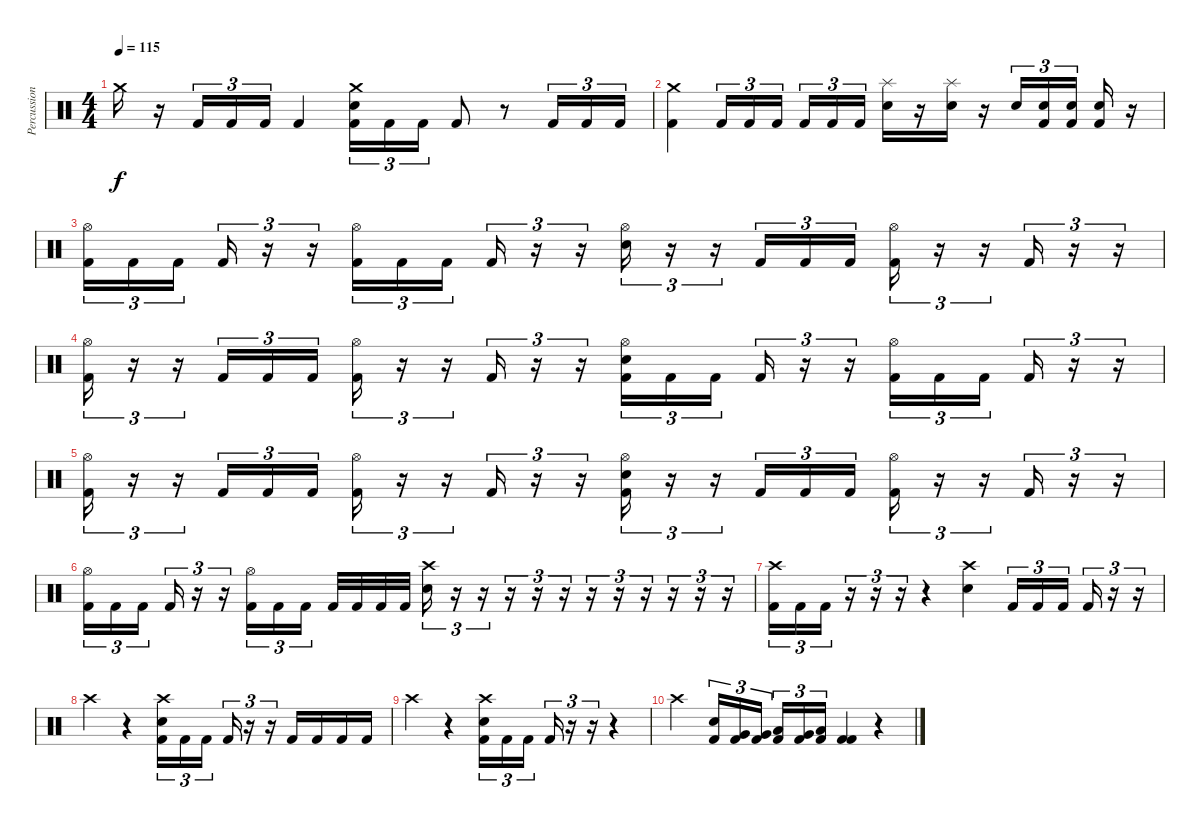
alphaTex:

\track ("Percussion" "Percussion") {instrument percussion}
\staff {score}
\articulation defaults
\ts (4 4)
\tempo 115
\clef neutral
\ks c "Crash medium (hit)".16{dy f}
r.16 "Kick (hit) 2".16{tu (3 2)} "Kick (hit) 2".16{tu (3 2)} "Kick (hit) 2".16{tu (3 2)} "Kick (hit) 2".4 ("Crash medium (hit)" "Electric Snare (hit)" "Kick (hit) 2").16{tu (3 2)} "Kick (hit) 2".16{tu (3 2)} "Kick (hit) 2".16{tu (3 2)} "Kick (hit) 2".8 r.8 "Kick (hit) 2".16{tu (3 2)} "Kick (hit) 2".16{tu (3 2)} "Kick (hit) 2".16{tu (3 2)} |
("Crash medium (hit)" "Kick (hit) 2").4 "Kick (hit) 2".16{tu (3 2)} "Kick (hit) 2".16{tu (3 2)} "Kick (hit) 2".16{tu (3 2)} "Kick (hit) 2".16{tu (3 2)} "Kick (hit) 2".16{tu (3 2)} "Kick (hit) 2".16{tu (3 2)} ("Splash (hit)" "Electric Snare (hit)").16 r.16 ("Splash (hit)" "Electric Snare (hit)").16 r.16 "Electric Snare (hit)".16{tu (3 2)} ("Electric Snare (hit)" "Kick (hit) 2").16{tu (3 2)} ("Electric Snare (hit)" "Kick (hit) 2").16{tu (3 2)} ("Electric Snare (hit)" "Kick (hit) 2").16 r.16 |
("Hi-Hat (open)" "Kick (hit) 2").16{tu (3 2)} "Kick (hit) 2".16{tu (3 2)} "Kick (hit) 2".16{tu (3 2)} "Kick (hit) 2".16{tu (3 2)} r.16{tu (3 2)} r.16{tu (3 2)} ("Hi-Hat (open)" "Kick (hit) 2").16{tu (3 2)} "Kick (hit) 2".16{tu (3 2)} "Kick (hit) 2".16{tu (3 2)} "Kick (hit) 2".16{tu (3 2)} r.16{tu (3 2)} r.16{tu (3 2)} ("Hi-Hat (open)" "Electric Snare (hit)").16{tu (3 2)} r.16{tu (3 2)} r.16{tu (3 2)} "Kick (hit) 2".16{tu (3 2)} "Kick (hit) 2".16{tu (3 2)} "Kick (hit) 2".16{tu (3 2)} ("Hi-Hat (open)" "Kick (hit) 2").16{tu (3 2)} r.16{tu (3 2)} r.16{tu (3 2)} "Kick (hit) 2".16{tu (3 2)} r.16{tu (3 2)} r.16{tu (3 2)} |
("Hi-Hat (open)" "Kick (hit) 2").16{tu (3 2)} r.16{tu (3 2)} r.16{tu (3 2)} "Kick (hit) 2".16{tu (3 2)} "Kick (hit) 2".16{tu (3 2)} "Kick (hit) 2".16{tu (3 2)} ("Hi-Hat (open)" "Kick (hit) 2").16{tu (3 2)} r.16{tu (3 2)} r.16{tu (3 2)} "Kick (hit) 2".16{tu (3 2)} r.16{tu (3 2)} r.16{tu (3 2)} ("Hi-Hat (open)" "Electric Snare (hit)" "Kick (hit) 2").16{tu (3 2)} "Kick (hit) 2".16{tu (3 2)} "Kick (hit) 2".16{tu (3 2)} "Kick (hit) 2".16{tu (3 2)} r.16{tu (3 2)} r.16{tu (3 2)} ("Hi-Hat (open)" "Kick (hit) 2").16{tu (3 2)} "Kick (hit) 2".16{tu (3 2)} "Kick (hit) 2".16{tu (3 2)} "Kick (hit) 2".16{tu (3 2)} r.16{tu (3 2)} r.16{tu (3 2)} |
("Hi-Hat (open)" "Kick (hit) 2").16{tu (3 2)} r.16{tu (3 2)} r.16{tu (3 2)} "Kick (hit) 2".16{tu (3 2)} "Kick (hit) 2".16{tu (3 2)} "Kick (hit) 2".16{tu (3 2)} ("Hi-Hat (open)" "Kick (hit) 2").16{tu (3 2)} r.16{tu (3 2)} r.16{tu (3 2)} "Kick (hit) 2".16{tu (3 2)} r.16{tu (3 2)} r.16{tu (3 2)} ("Hi-Hat (open)" "Electric Snare (hit)" "Kick (hit) 2").16{tu (3 2)} r.16{tu (3 2)} r.16{tu (3 2)} "Kick (hit) 2".16{tu (3 2)} "Kick (hit) 2".16{tu (3 2)} "Kick (hit) 2".16{tu (3 2)} ("Hi-Hat (open)" "Kick (hit) 2").16{tu (3 2)} r.16{tu (3 2)} r.16{tu (3 2)} "Kick (hit) 2".16{tu (3 2)} r.16{tu (3 2)} r.16{tu (3 2)} |
("Hi-Hat (open)" "Kick (hit) 2").16{tu (3 2)} "Kick (hit) 2".16{tu (3 2)} "Kick (hit) 2".16{tu (3 2)} "Kick (hit) 2".16{tu (3 2)} r.16{tu (3 2)} r.16{tu (3 2)} ("Hi-Hat (open)" "Kick (hit) 2").16{tu (3 2)} "Kick (hit) 2".16{tu (3 2)} "Kick (hit) 2".16{tu (3 2)} "Kick (hit) 2".32 "Kick (hit) 2".32 "Kick (hit) 2".32 "Kick (hit) 2".32 ("Crash high (hit)" "Electric Snare (hit)").16{tu (3 2)} r.16{tu (3 2)} r.16{tu (3 2)} r.16{tu (3 2)} r.16{tu (3 2)} r.16{tu (3 2)} r.16{tu (3 2)} r.16{tu (3 2)} r.16{tu (3 2)} r.16{tu (3 2)} r.16{tu (3 2)} r.16{tu (3 2)} |
("Crash high (hit)" "Kick (hit) 2").16{tu (3 2)} "Kick (hit) 2".16{tu (3 2)} "Kick (hit) 2".16{tu (3 2)} r.16{tu (3 2)} r.16{tu (3 2)} r.16{tu (3 2)} r.4 ("Crash high (hit)" "Electric Snare (hit)").4 "Kick (hit) 2".16{tu (3 2)} "Kick (hit) 2".16{tu (3 2)} "Kick (hit) 2".16{tu (3 2)} "Kick (hit) 2".16{tu (3 2)} r.16{tu (3 2)} r.16{tu (3 2)} |
"Crash high (hit)".4 r.4 ("Crash high (hit)" "Electric Snare (hit)" "Kick (hit) 2").16{tu (3 2)} "Kick (hit) 2".16{tu (3 2)} "Kick (hit) 2".16{tu (3 2)} "Kick (hit) 2".16{tu (3 2)} r.16{tu (3 2)} r.16{tu (3 2)} "Kick (hit) 2".16 "Kick (hit) 2".16 "Kick (hit) 2".16 "Kick (hit) 2".16 |
"Crash high (hit)".4 r.4 ("Crash high (hit)" "Electric Snare (hit)" "Kick (hit) 2").16{tu (3 2)} "Kick (hit) 2".16{tu (3 2)} "Kick (hit) 2".16{tu (3 2)} "Kick (hit) 2".16{tu (3 2)} r.16{tu (3 2)} r.16{tu (3 2)} r.4 |
"Crash high (hit)".4 ("Electric Snare (hit)" "Kick (hit) 2").16{tu (3 2)} ("Very Low Tom (hit)" "Kick (hit) 2").16{tu (3 2)} ("Very Low Tom (hit)" "Kick (hit) 2").16{tu (3 2)} ("Low Tom (hit)" "Kick (hit) 2").16{tu (3 2)} ("Very Low Tom (hit)" "Kick (hit) 2").16{tu (3 2)} ("Low Floor Tom (hit)" "Kick (hit) 2").16{tu (3 2)} ("Kick (hit) 2" "Kick (hit) 2").4 r.4
